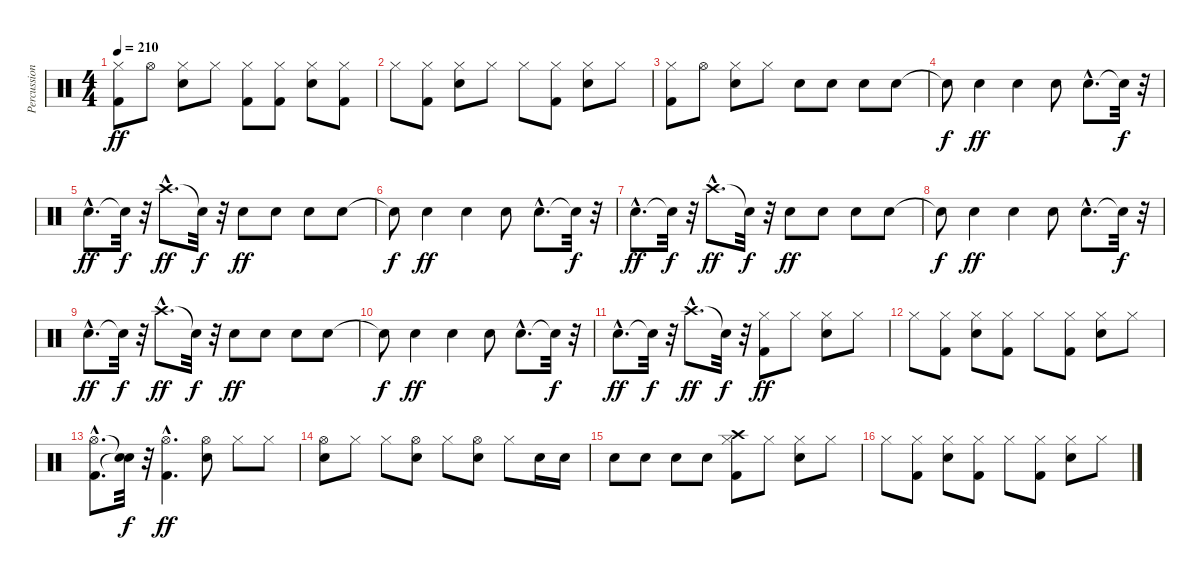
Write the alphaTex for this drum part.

\track ("Percussions" "Percussion") {instrument percussion}
\staff {score}
\articulation defaults
\ts (4 4)
\tempo 210
\clef neutral
\ks c
("Kick (hit) 2" "Hi-Hat (closed)").8{dy ff} "Hi-Hat (open)".8 ("Snare (hit) 2" "Hi-Hat (closed)").8 "Hi-Hat (closed)".8 ("Kick (hit) 2" "Hi-Hat (closed)").8 ("Kick (hit) 2" "Hi-Hat (closed)").8 ("Snare (hit) 2" "Hi-Hat (closed)").8 ("Kick (hit) 2" "Hi-Hat (closed)").8 |
"Hi-Hat (closed)".8 ("Kick (hit) 2" "Hi-Hat (closed)").8 ("Snare (hit) 2" "Hi-Hat (closed)").8 "Hi-Hat (closed)".8 "Hi-Hat (closed)".8 ("Kick (hit) 2" "Hi-Hat (closed)").8 ("Snare (hit) 2" "Hi-Hat (closed)").8 "Hi-Hat (closed)".8 |
("Kick (hit) 2" "Hi-Hat (closed)").8 "Hi-Hat (open)".8 ("Snare (hit) 2" "Hi-Hat (closed)").8 "Hi-Hat (closed)".8 "Snare (hit) 2".8 "Snare (hit) 2".8 "Snare (hit) 2".8 "Snare (hit) 2".8 |
"Snare (hit)"{t}.8{dy f} "Snare (hit) 2".4{dy ff} "Snare (hit) 2".4 "Snare (hit) 2".8 "Snare (hit) 2"{hac}.8{d} "Snare (hit)"{t}.32{dy f} r.32 |
"Snare (hit) 2"{hac}.8{d dy ff} "Snare (hit)"{t}.32{dy f} r.32 "Crash high (hit)"{hac}.8{d dy ff} "Snare (hit)"{t}.32{dy f} r.32 "Snare (hit) 2".8{dy ff} "Snare (hit) 2".8 "Snare (hit) 2".8 "Snare (hit) 2".8 |
"Snare (hit)"{t}.8{dy f} "Snare (hit) 2".4{dy ff} "Snare (hit) 2".4 "Snare (hit) 2".8 "Snare (hit) 2"{hac}.8{d} "Snare (hit)"{t}.32{dy f} r.32 |
"Snare (hit) 2"{hac}.8{d dy ff} "Snare (hit)"{t}.32{dy f} r.32 "Crash high (hit)"{hac}.8{d dy ff} "Snare (hit)"{t}.32{dy f} r.32 "Snare (hit) 2".8{dy ff} "Snare (hit) 2".8 "Snare (hit) 2".8 "Snare (hit) 2".8 |
"Snare (hit)"{t}.8{dy f} "Snare (hit) 2".4{dy ff} "Snare (hit) 2".4 "Snare (hit) 2".8 "Snare (hit) 2"{hac}.8{d} "Snare (hit)"{t}.32{dy f} r.32 |
"Snare (hit) 2"{hac}.8{d dy ff} "Snare (hit)"{t}.32{dy f} r.32 "Crash high (hit)"{hac}.8{d dy ff} "Snare (hit)"{t}.32{dy f} r.32 "Snare (hit) 2".8{dy ff} "Snare (hit) 2".8 "Snare (hit) 2".8 "Snare (hit) 2".8 |
"Snare (hit)"{t}.8{dy f} "Snare (hit) 2".4{dy ff} "Snare (hit) 2".4 "Snare (hit) 2".8 "Snare (hit) 2"{hac}.8{d} "Snare (hit)"{t}.32{dy f} r.32 |
"Snare (hit) 2"{hac}.8{d dy ff} "Snare (hit)"{t}.32{dy f} r.32 "Crash high (hit)"{hac}.8{d dy ff} "Snare (hit)"{t}.32{dy f} r.32 ("Kick (hit) 2" "Hi-Hat (closed)").8{dy ff} "Hi-Hat (closed)".8 ("Snare (hit) 2" "Hi-Hat (closed)").8 "Hi-Hat (closed)".8 |
"Hi-Hat (closed)".8 ("Kick (hit) 2" "Hi-Hat (closed)").8 ("Snare (hit) 2" "Hi-Hat (closed)").8 ("Kick (hit) 2" "Hi-Hat (closed)").8 "Hi-Hat (closed)".8 ("Kick (hit) 2" "Hi-Hat (closed)").8 ("Snare (hit) 2" "Hi-Hat (closed)").8 "Hi-Hat (closed)".8 |
("Kick (hit) 2"{hac} "Hi-Hat (open)"{hac}).8{d} ("Snare (hit)"{t} "Snare (hit)"{t}).32{dy f} r.32 ("Kick (hit) 2"{hac} "Hi-Hat (open)"{hac}).4{d dy ff} ("Snare (hit) 2" "Hi-Hat (open)").8 "Hi-Hat (closed)".8 "Hi-Hat (closed)".8 |
("Snare (hit) 2" "Hi-Hat (open)").8 "Hi-Hat (closed)".8 "Hi-Hat (closed)".8 ("Snare (hit) 2" "Hi-Hat (open)").8 "Hi-Hat (closed)".8 ("Snare (hit) 2" "Hi-Hat (open)").8 "Hi-Hat (closed)".8 "Snare (hit) 2".16 "Snare (hit) 2".16 |
"Snare (hit) 2".8 "Snare (hit) 2".8 "Snare (hit) 2".8 "Snare (hit) 2".8 ("Kick (hit) 2" "Hi-Hat (closed)" "Crash high (hit)").8 "Hi-Hat (closed)".8 ("Snare (hit) 2" "Hi-Hat (closed)").8 "Hi-Hat (closed)".8 |
"Hi-Hat (closed)".8 ("Kick (hit) 2" "Hi-Hat (closed)").8 ("Snare (hit) 2" "Hi-Hat (closed)").8 ("Kick (hit) 2" "Hi-Hat (closed)").8 "Hi-Hat (closed)".8 ("Kick (hit) 2" "Hi-Hat (closed)").8 ("Snare (hit) 2" "Hi-Hat (closed)").8 "Hi-Hat (closed)".8
